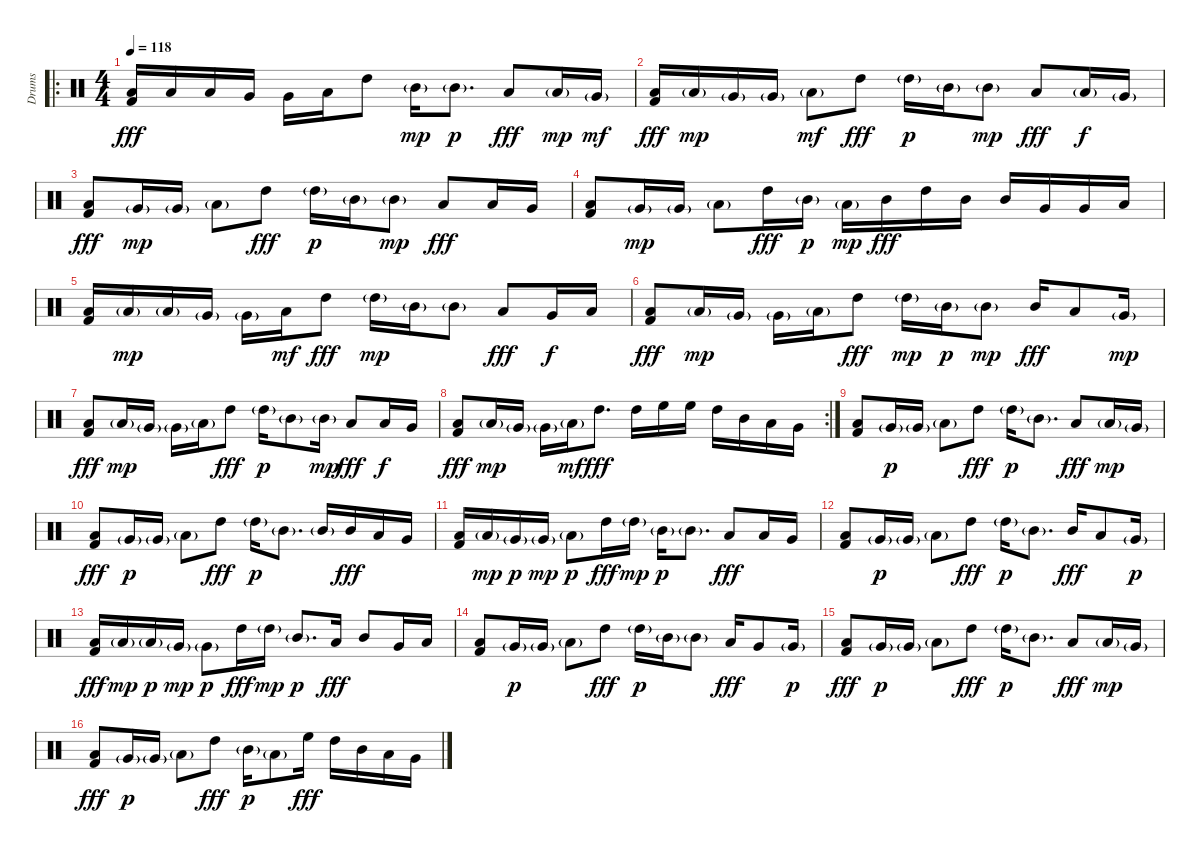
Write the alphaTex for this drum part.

\track ("Drums" "Drums") {instrument percussion}
\staff {score}
\articulation defaults
\ro
\ts (4 4)
\tempo 118
\clef neutral
\ks c
("Low Floor Tom (hit)" "Kick (hit) 2").16{dy fff} "Low Tom (hit)".16 "Low Floor Tom (hit)".16 "Very Low Tom (hit)".16 "Very Low Tom (hit)".16 "Low Floor Tom (hit)".16 "High Tom (hit)".8 "Mid Tom (hit)"{g}.16{dy mp} "Mid Tom (hit)"{g}.8{d dy p} "Low Tom (hit)".8{dy fff} "Low Tom (hit)"{g}.16{dy mp} "Very Low Tom (hit)"{g}.16{dy mf} |
("Low Floor Tom (hit)" "Kick (hit) 2").16{dy fff} "Low Tom (hit)"{g}.16{dy mp} "Very Low Tom (hit)"{g}.16 "Very Low Tom (hit)"{g}.16 "Low Floor Tom (hit)"{g}.8{dy mf} "High Tom (hit)".8{dy fff} "High Tom (hit)"{g}.16{dy p} "Mid Tom (hit)"{g}.16 "Mid Tom (hit)"{g}.8{dy mp} "Low Tom (hit)".8{dy fff} "Low Tom (hit)"{g}.16{dy f} "Very Low Tom (hit)"{g}.16 |
("Low Floor Tom (hit)" "Kick (hit) 2").8{dy fff} "Very Low Tom (hit)"{g}.16{dy mp} "Very Low Tom (hit)"{g}.16 "Low Floor Tom (hit)"{g}.8 "High Tom (hit)".8{dy fff} "High Tom (hit)"{g}.16{dy p} "Mid Tom (hit)"{g}.16 "Mid Tom (hit)"{g}.8{dy mp} "Low Tom (hit)".8{dy fff} "Low Tom (hit)".16 "Very Low Tom (hit)".16 |
("Low Floor Tom (hit)" "Kick (hit) 2").8 "Very Low Tom (hit)"{g}.16{dy mp} "Very Low Tom (hit)"{g}.16 "Low Floor Tom (hit)"{g}.8 "High Tom (hit)".16{dy fff} "Mid Tom (hit)"{g}.16{dy p} "Low Tom (hit)"{g}.16{dy mp} "Mid Tom (hit)".16{dy fff} "High Tom (hit)".16 "Mid Tom (hit)".16 "Mid Tom (hit)".16 "Very Low Tom (hit)".16 "Very Low Tom (hit)".16 "Low Floor Tom (hit)".16 |
("Low Floor Tom (hit)" "Kick (hit) 2").16 "Low Tom (hit)"{g}.16{dy mp} "Low Floor Tom (hit)"{g}.16 "Very Low Tom (hit)"{g}.16 "Very Low Tom (hit)"{g}.16 "Low Floor Tom (hit)".16{dy mf} "High Tom (hit)".8{dy fff} "High Tom (hit)"{g}.16{dy mp} "Mid Tom (hit)"{g}.16 "Mid Tom (hit)"{g}.8 "Low Tom (hit)".8{dy fff} "Very Low Tom (hit)".16{dy f} "Low Tom (hit)".16 |
("Low Floor Tom (hit)" "Kick (hit) 2").8{dy fff} "Low Floor Tom (hit)"{g}.16{dy mp} "Very Low Tom (hit)"{g}.16 "Very Low Tom (hit)"{g}.16 "Low Floor Tom (hit)"{g}.16 "High Tom (hit)".8{dy fff} "High Tom (hit)"{g}.16{dy mp} "Mid Tom (hit)"{g}.16{dy p} "Mid Tom (hit)"{g}.8{dy mp} "Mid Tom (hit)".16{dy fff} "Low Tom (hit)".8 "Very Low Tom (hit)"{g}.16{dy mp} |
("Low Floor Tom (hit)" "Kick (hit) 2").8{dy fff} "Low Floor Tom (hit)"{g}.16{dy mp} "Very Low Tom (hit)"{g}.16 "Very Low Tom (hit)"{g}.16 "Low Floor Tom (hit)"{g}.16 "High Tom (hit)".8{dy fff} "High Tom (hit)"{g}.16{dy p} "Mid Tom (hit)"{g}.8 "Mid Tom (hit)"{g}.16{dy mp} "Low Tom (hit)".8{dy fff} "Low Tom (hit)".16{dy f} "Very Low Tom (hit)".16 |
\rc 2
("Low Floor Tom (hit)" "Kick (hit) 2").8{dy fff} "Low Floor Tom (hit)"{g}.16{dy mp} "Very Low Tom (hit)"{g}.16 "Very Low Tom (hit)"{g}.16 "Low Floor Tom (hit)"{g}.16{dy mf} "High Tom (hit)".8{d dy fff} "High Tom (hit)".16 "High Floor Tom (hit)".16 "High Floor Tom (hit)".16 "High Tom (hit)".16 "Mid Tom (hit)".16 "Low Tom (hit)".16 "Very Low Tom (hit)".16 |
("Low Floor Tom (hit)" "Kick (hit) 2").8 "Very Low Tom (hit)"{g}.16{dy p} "Very Low Tom (hit)"{g}.16 "Low Floor Tom (hit)"{g}.8 "High Tom (hit)".8{dy fff} "High Tom (hit)"{g}.16{dy p} "Mid Tom (hit)"{g}.8{d} "Low Tom (hit)".8{dy fff} "Low Tom (hit)"{g}.16{dy mp} "Very Low Tom (hit)"{g}.16 |
("Low Floor Tom (hit)" "Kick (hit) 2").8{dy fff} "Very Low Tom (hit)"{g}.16{dy p} "Very Low Tom (hit)"{g}.16 "Low Floor Tom (hit)"{g}.8 "High Tom (hit)".8{dy fff} "High Tom (hit)"{g}.16{dy p} "Mid Tom (hit)"{g}.8{d} "Mid Tom (hit)"{g}.16 "Mid Tom (hit)".16{dy fff} "Low Tom (hit)".16 "Very Low Tom (hit)".16 |
("Low Floor Tom (hit)" "Kick (hit) 2").16 "Low Tom (hit)"{g}.16{dy mp} "Very Low Tom (hit)"{g}.16{dy p} "Very Low Tom (hit)"{g}.16{dy mp} "Low Floor Tom (hit)"{g}.8{dy p} "High Tom (hit)".16{dy fff} "High Tom (hit)"{g}.16{dy mp} "Mid Tom (hit)"{g}.16{dy p} "Mid Tom (hit)"{g}.8{d} "Low Tom (hit)".8{dy fff} "Low Tom (hit)".16 "Very Low Tom (hit)".16 |
("Low Floor Tom (hit)" "Kick (hit) 2").8 "Very Low Tom (hit)"{g}.16{dy p} "Very Low Tom (hit)"{g}.16 "Low Floor Tom (hit)"{g}.8 "High Tom (hit)".8{dy fff} "High Tom (hit)"{g}.16{dy p} "Mid Tom (hit)"{g}.8{d} "Mid Tom (hit)".16{dy fff} "Low Tom (hit)".8 "Very Low Tom (hit)"{g}.16{dy p} |
("Low Floor Tom (hit)" "Kick (hit) 2").16{dy fff} "Low Floor Tom (hit)"{g}.16{dy mp} "Low Floor Tom (hit)"{g}.16{dy p} "Very Low Tom (hit)"{g}.16{dy mp} "Very Low Tom (hit)"{g}.8{dy p} "High Tom (hit)".16{dy fff} "High Tom (hit)"{g}.16{dy mp} "Mid Tom (hit)"{g}.8{d dy p} "Low Tom (hit)".16{dy fff} "Mid Tom (hit)".8 "Very Low Tom (hit)".16 "Low Tom (hit)".16 |
("Low Floor Tom (hit)" "Kick (hit) 2").8 "Very Low Tom (hit)"{g}.16{dy p} "Very Low Tom (hit)"{g}.16 "Low Floor Tom (hit)"{g}.8 "High Tom (hit)".8{dy fff} "High Tom (hit)"{g}.16{dy p} "Mid Tom (hit)"{g}.16 "Mid Tom (hit)"{g}.8 "Low Tom (hit)".16{dy fff} "Very Low Tom (hit)".8 "Very Low Tom (hit)"{g}.16{dy p} |
("Low Floor Tom (hit)" "Kick (hit) 2").8{dy fff} "Very Low Tom (hit)"{g}.16{dy p} "Very Low Tom (hit)"{g}.16 "Low Floor Tom (hit)"{g}.8 "High Tom (hit)".8{dy fff} "High Tom (hit)"{g}.16{dy p} "Mid Tom (hit)"{g}.8{d} "Low Tom (hit)".8{dy fff} "Low Tom (hit)"{g}.16{dy mp} "Very Low Tom (hit)"{g}.16 |
("Low Floor Tom (hit)" "Kick (hit) 2").8{dy fff} "Very Low Tom (hit)"{g}.16{dy p} "Very Low Tom (hit)"{g}.16 "Low Floor Tom (hit)"{g}.8 "High Tom (hit)".8{dy fff} "Mid Tom (hit)"{g}.16{dy p} "Low Tom (hit)"{g}.8 "High Floor Tom (hit)".16{dy fff} "High Tom (hit)".16 "Mid Tom (hit)".16 "Low Tom (hit)".16 "Very Low Tom (hit)".16
